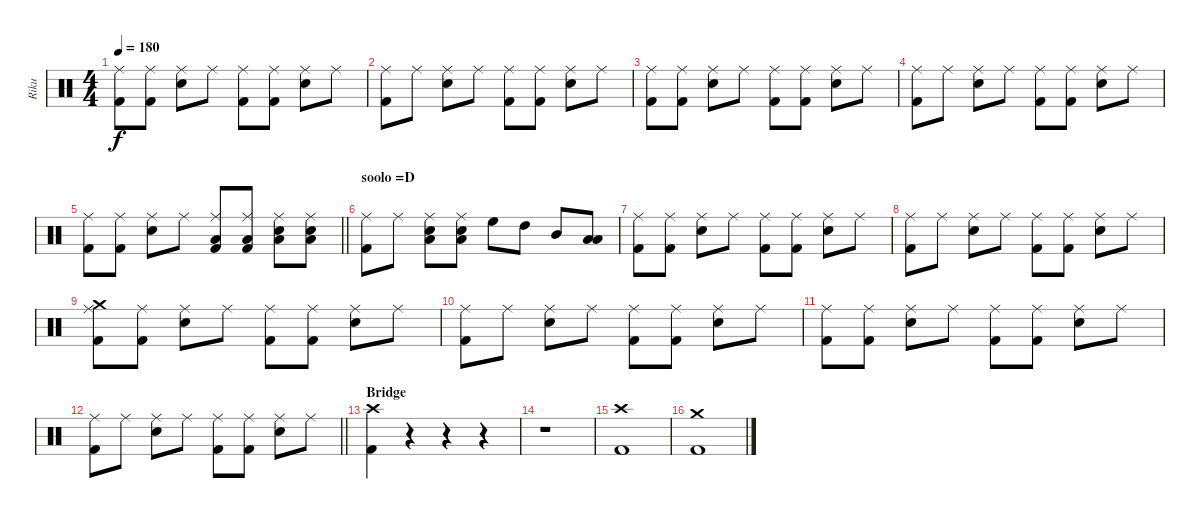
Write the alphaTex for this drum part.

\track ("Riku" "Riku") {instrument percussion}
\staff {score}
\articulation defaults
\ts (4 4)
\tempo 180
\clef neutral
\ks c
("Kick (hit) 2" "Ride (middle)").8{dy f} ("Kick (hit) 2" "Ride (middle)").8 ("Snare (hit) 2" "Ride (middle)").8 "Ride (middle)".8 ("Kick (hit) 2" "Ride (middle)").8 ("Kick (hit) 2" "Ride (middle)").8 ("Snare (hit) 2" "Ride (middle)").8 "Ride (middle)".8 |
("Kick (hit) 2" "Ride (middle)").8 "Ride (middle)".8 ("Snare (hit) 2" "Ride (middle)").8 "Ride (middle)".8 ("Kick (hit) 2" "Ride (middle)").8 ("Kick (hit) 2" "Ride (middle)").8 ("Snare (hit) 2" "Ride (middle)").8 "Ride (middle)".8 |
("Kick (hit) 2" "Ride (middle)").8 ("Kick (hit) 2" "Ride (middle)").8 ("Snare (hit) 2" "Ride (middle)").8 "Ride (middle)".8 ("Kick (hit) 2" "Ride (middle)").8 ("Kick (hit) 2" "Ride (middle)").8 ("Snare (hit) 2" "Ride (middle)").8 "Ride (middle)".8 |
("Kick (hit) 2" "Ride (middle)").8 "Ride (middle)".8 ("Snare (hit) 2" "Ride (middle)").8 "Ride (middle)".8 ("Kick (hit) 2" "Ride (middle)").8 ("Kick (hit) 2" "Ride (middle)").8 ("Snare (hit) 2" "Ride (middle)").8 "Ride (middle)".8 |
\barLineRight lightlight
("Kick (hit) 2" "Ride (middle)").8 ("Kick (hit) 2" "Ride (middle)").8 ("Snare (hit) 2" "Ride (middle)").8 "Ride (middle)".8 ("Low Floor Tom (hit)" "Kick (hit) 2" "Ride (middle)").8 ("Low Floor Tom (hit)" "Kick (hit) 2" "Ride (middle)").8 ("Low Floor Tom (hit)" "Snare (hit) 2" "Ride (middle)").8 ("Low Floor Tom (hit)" "Ride (middle)" "Snare (hit) 2").8 |
\section ("" "soolo =D")
("Kick (hit) 2" "Ride (middle)").8 "Ride (middle)".8 ("Snare (hit) 2" "Ride (middle)" "Low Floor Tom (hit)").8 ("Snare (hit) 2" "Ride (middle)" "Low Floor Tom (hit)").8 "High Floor Tom (hit)".8 "High Tom (hit)".8 "Mid Tom (hit)".8 ("Low Floor Tom (hit)" "Low Tom (hit)").8 |
("Kick (hit) 2" "Ride (middle)").8 ("Kick (hit) 2" "Ride (middle)").8 ("Snare (hit) 2" "Ride (middle)").8 "Ride (middle)".8 ("Kick (hit) 2" "Ride (middle)").8 ("Kick (hit) 2" "Ride (middle)").8 ("Snare (hit) 2" "Ride (middle)").8 "Ride (middle)".8 |
("Kick (hit) 2" "Ride (middle)").8 "Ride (middle)".8 ("Snare (hit) 2" "Ride (middle)").8 "Ride (middle)".8 ("Kick (hit) 2" "Ride (middle)").8 ("Kick (hit) 2" "Ride (middle)").8 ("Snare (hit) 2" "Ride (middle)").8 "Ride (middle)".8 |
("Kick (hit) 2" "Ride (middle)" "Crash medium (hit)").8 ("Kick (hit) 2" "Ride (middle)").8 ("Snare (hit) 2" "Ride (middle)").8 "Ride (middle)".8 ("Kick (hit) 2" "Ride (middle)").8 ("Kick (hit) 2" "Ride (middle)").8 ("Snare (hit) 2" "Ride (middle)").8 "Ride (middle)".8 |
("Kick (hit) 2" "Ride (middle)").8 "Ride (middle)".8 ("Snare (hit) 2" "Ride (middle)").8 "Ride (middle)".8 ("Kick (hit) 2" "Ride (middle)").8 ("Kick (hit) 2" "Ride (middle)").8 ("Snare (hit) 2" "Ride (middle)").8 "Ride (middle)".8 |
("Kick (hit) 2" "Ride (middle)").8 ("Kick (hit) 2" "Ride (middle)").8 ("Snare (hit) 2" "Ride (middle)").8 "Ride (middle)".8 ("Kick (hit) 2" "Ride (middle)").8 ("Kick (hit) 2" "Ride (middle)").8 ("Snare (hit) 2" "Ride (middle)").8 "Ride (middle)".8 |
\barLineRight lightlight
("Kick (hit) 2" "Ride (middle)").8 "Ride (middle)".8 ("Snare (hit) 2" "Ride (middle)").8 "Ride (middle)".8 ("Kick (hit) 2" "Ride (middle)").8 ("Kick (hit) 2" "Ride (middle)").8 ("Snare (hit) 2" "Ride (middle)").8 "Ride (middle)".8 |
\section ("" "Bridge")
("Kick (hit) 2" "Crash high (hit)").4 r.4 r.4 r.4 |
r.1 |
("Kick (hit) 2" "Crash high (hit)").1 |
("Kick (hit) 2" "Crash medium (hit)").1
